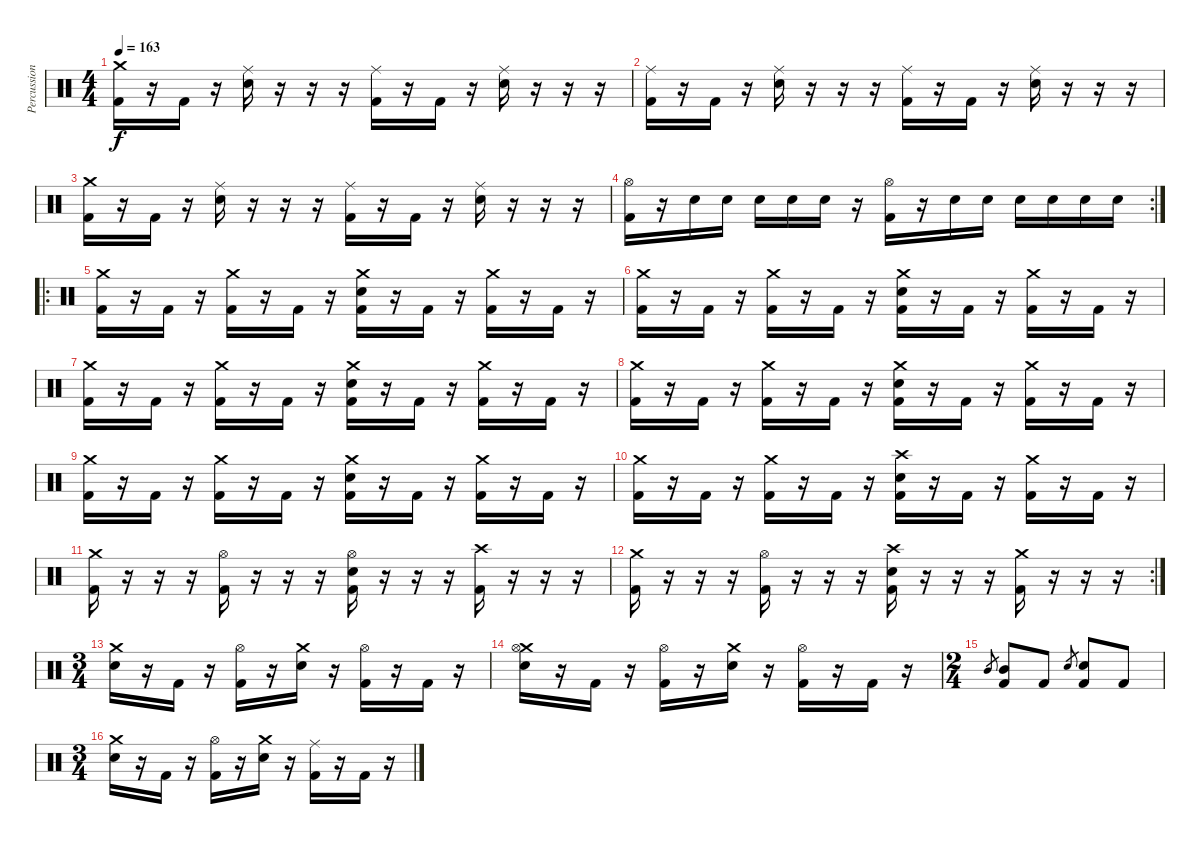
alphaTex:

\track ("Percussion" "Percussion") {instrument percussion}
\staff {score}
\articulation defaults
\ts (4 4)
\tempo 163
\clef neutral
\ks c
("Crash medium (hit)" "Kick (hit) 2").16{dy f} r.16 "Kick (hit) 2".16 r.16 ("Ride (middle)" "Snare (hit) 2").16 r.16 r.16 r.16 ("Ride (middle)" "Kick (hit) 2").16 r.16 "Kick (hit) 2".16 r.16 ("Ride (middle)" "Snare (hit) 2").16 r.16 r.16 r.16 |
("Ride (middle)" "Kick (hit) 2").16 r.16 "Kick (hit) 2".16 r.16 ("Ride (middle)" "Snare (hit) 2").16 r.16 r.16 r.16 ("Ride (middle)" "Kick (hit) 2").16 r.16 "Kick (hit) 2".16 r.16 ("Ride (middle)" "Snare (hit) 2").16 r.16 r.16 r.16 |
("Crash medium (hit)" "Kick (hit) 2").16 r.16 "Kick (hit) 2".16 r.16 ("Ride (middle)" "Snare (hit) 2").16 r.16 r.16 r.16 ("Ride (middle)" "Kick (hit) 2").16 r.16 "Kick (hit) 2".16 r.16 ("Ride (middle)" "Snare (hit) 2").16 r.16 r.16 r.16 |
\rc 2
("Hi-Hat (open)" "Kick (hit) 2").16 r.16 "Snare (hit) 2".16 "Snare (hit) 2".16 "Snare (hit) 2".16 "Snare (hit) 2".16 "Snare (hit) 2".16 r.16 ("Hi-Hat (open)" "Kick (hit) 2").16 r.16 "Snare (hit) 2".16 "Snare (hit) 2".16 "Snare (hit) 2".16 "Snare (hit) 2".16 "Snare (hit) 2".16 "Snare (hit) 2".16 |
\ro
("Crash medium (hit)" "Kick (hit) 2").16 r.16 "Kick (hit) 2".16 r.16 ("Crash medium (hit)" "Kick (hit) 2").16 r.16 "Kick (hit) 2".16 r.16 ("Crash medium (hit)" "Snare (hit) 2" "Kick (hit) 2").16 r.16 "Kick (hit) 2".16 r.16 ("Crash medium (hit)" "Kick (hit) 2").16 r.16 "Kick (hit) 2".16 r.16 |
("Crash medium (hit)" "Kick (hit) 2").16 r.16 "Kick (hit) 2".16 r.16 ("Crash medium (hit)" "Kick (hit) 2").16 r.16 "Kick (hit) 2".16 r.16 ("Crash medium (hit)" "Snare (hit) 2" "Kick (hit) 2").16 r.16 "Kick (hit) 2".16 r.16 ("Crash medium (hit)" "Kick (hit) 2").16 r.16 "Kick (hit) 2".16 r.16 |
("Crash medium (hit)" "Kick (hit) 2").16 r.16 "Kick (hit) 2".16 r.16 ("Crash medium (hit)" "Kick (hit) 2").16 r.16 "Kick (hit) 2".16 r.16 ("Crash medium (hit)" "Snare (hit) 2" "Kick (hit) 2").16 r.16 "Kick (hit) 2".16 r.16 ("Crash medium (hit)" "Kick (hit) 2").16 r.16 "Kick (hit) 2".16 r.16 |
("Crash medium (hit)" "Kick (hit) 2").16 r.16 "Kick (hit) 2".16 r.16 ("Crash medium (hit)" "Kick (hit) 2").16 r.16 "Kick (hit) 2".16 r.16 ("Crash medium (hit)" "Snare (hit) 2" "Kick (hit) 2").16 r.16 "Kick (hit) 2".16 r.16 ("Crash medium (hit)" "Kick (hit) 2").16 r.16 "Kick (hit) 2".16 r.16 |
("Crash medium (hit)" "Kick (hit) 2").16 r.16 "Kick (hit) 2".16 r.16 ("Crash medium (hit)" "Kick (hit) 2").16 r.16 "Kick (hit) 2".16 r.16 ("Crash medium (hit)" "Snare (hit) 2" "Kick (hit) 2").16 r.16 "Kick (hit) 2".16 r.16 ("Crash medium (hit)" "Kick (hit) 2").16 r.16 "Kick (hit) 2".16 r.16 |
("Crash medium (hit)" "Kick (hit) 2").16 r.16 "Kick (hit) 2".16 r.16 ("Crash medium (hit)" "Kick (hit) 2").16 r.16 "Kick (hit) 2".16 r.16 ("Crash high (hit)" "Snare (hit) 2" "Kick (hit) 2").16 r.16 "Kick (hit) 2".16 r.16 ("Crash medium (hit)" "Kick (hit) 2").16 r.16 "Kick (hit) 2".16 r.16 |
("Crash medium (hit)" "Kick (hit) 2").16 r.16 r.16 r.16 ("Hi-Hat (open)" "Kick (hit) 2").16 r.16 r.16 r.16 ("Hi-Hat (open)" "Snare (hit) 2" "Kick (hit) 2").16 r.16 r.16 r.16 ("Crash high (hit)" "Kick (hit) 2").16 r.16 r.16 r.16 |
\rc 2
("Crash medium (hit)" "Kick (hit) 2").16 r.16 r.16 r.16 ("Hi-Hat (open)" "Kick (hit) 2").16 r.16 r.16 r.16 ("Crash high (hit)" "Snare (hit) 2" "Kick (hit) 2").16 r.16 r.16 r.16 ("Crash medium (hit)" "Kick (hit) 2").16 r.16 r.16 r.16 |
\ts (3 4)
("Crash medium (hit)" "Snare (hit) 2").16 r.16 "Kick (hit) 2".16 r.16 ("Hi-Hat (open)" "Kick (hit) 2").16 r.16 ("Crash medium (hit)" "Snare (hit) 2").16 r.16 ("Hi-Hat (open)" "Kick (hit) 2").16 r.16 "Kick (hit) 2".16 r.16 |
("Crash medium (hit)" "Hi-Hat (open)" "Snare (hit) 2").16 r.16 "Kick (hit) 2".16 r.16 ("Hi-Hat (open)" "Kick (hit) 2").16 r.16 ("Crash medium (hit)" "Snare (hit) 2").16 r.16 ("Hi-Hat (open)" "Kick (hit) 2").16 r.16 "Kick (hit) 2".16 r.16 |
\ts (2 4)
"Mid Tom (hit)".8{gr} ("Mid Tom (hit)" "Kick (hit) 2").8 "Kick (hit) 2".8 "Snare (hit) 2".8{gr} ("Snare (hit) 2" "Kick (hit) 2").8 "Kick (hit) 2".8 |
\ts (3 4)
("Crash medium (hit)" "Snare (hit) 2").16 r.16 "Kick (hit) 2".16 r.16 ("Hi-Hat (open)" "Kick (hit) 2").16 r.16 ("Crash medium (hit)" "Snare (hit) 2").16 r.16 ("Ride (middle)" "Kick (hit) 2").16 r.16 "Kick (hit) 2".16 r.16
